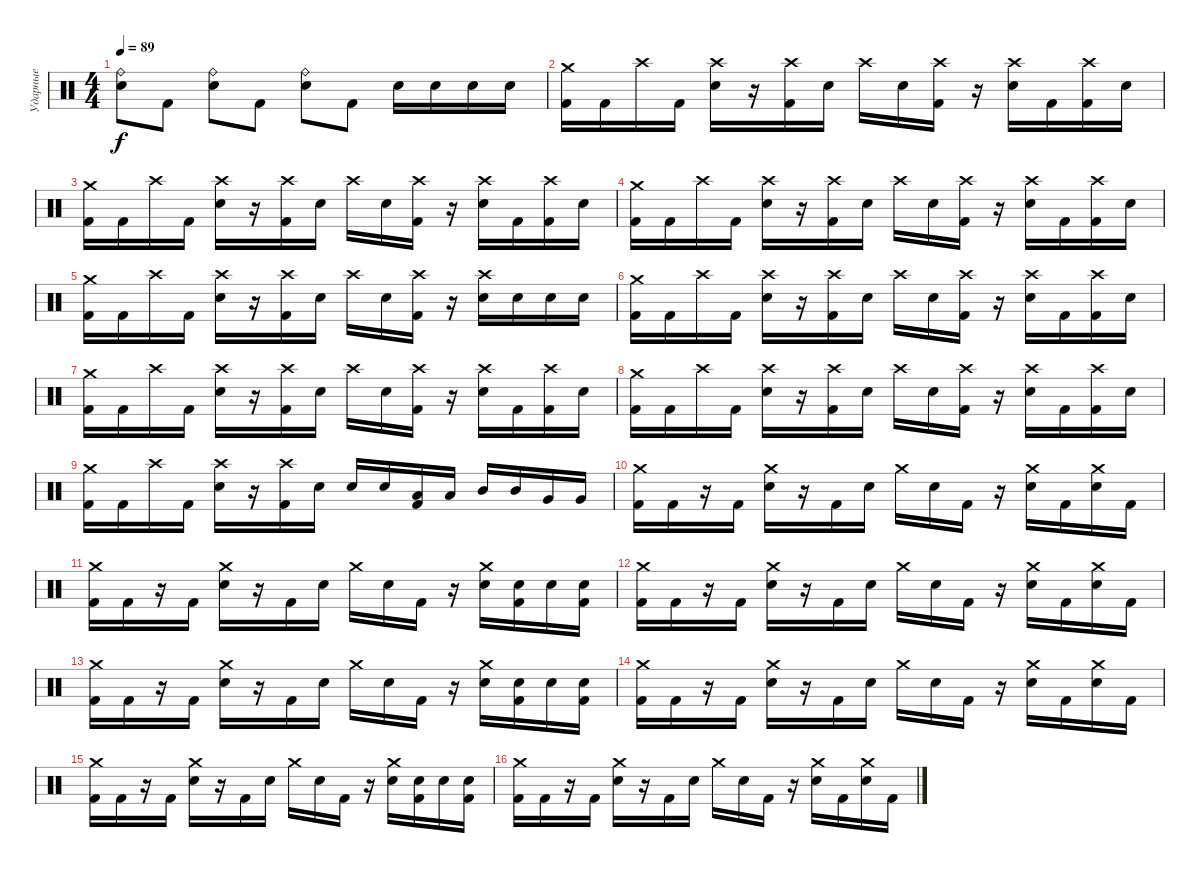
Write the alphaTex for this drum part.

\track ("Ударные" "Ударные") {instrument percussion}
\staff {score}
\articulation defaults
\ts (4 4)
\tempo 89
\clef neutral
\ks c
("Ride (bell)" "Electric Snare (hit)").8{dy f} "Kick (hit) 2".8 ("Ride (bell)" "Electric Snare (hit)").8 "Kick (hit) 2".8 ("Ride (bell)" "Electric Snare (hit)").8 "Kick (hit) 2".8 "Electric Snare (hit)".16 "Electric Snare (hit)".16 "Electric Snare (hit)".16 "Electric Snare (hit)".16 |
("Crash medium (hit)" "Kick (hit) 2").16 "Kick (hit) 2".16 "Crash high (hit)".16 "Kick (hit) 2".16 ("Crash high (hit)" "Electric Snare (hit)").16 r.16 ("Crash high (hit)" "Kick (hit) 2").16 "Electric Snare (hit)".16 "Crash high (hit)".16 "Electric Snare (hit)".16 ("Crash high (hit)" "Kick (hit) 2").16 r.16 ("Crash high (hit)" "Electric Snare (hit)").16 "Kick (hit) 2".16 ("Crash high (hit)" "Kick (hit) 2").16 "Electric Snare (hit)".16 |
("Crash medium (hit)" "Kick (hit) 2").16 "Kick (hit) 2".16 "Crash high (hit)".16 "Kick (hit) 2".16 ("Crash high (hit)" "Electric Snare (hit)").16 r.16 ("Crash high (hit)" "Kick (hit) 2").16 "Electric Snare (hit)".16 "Crash high (hit)".16 "Electric Snare (hit)".16 ("Crash high (hit)" "Kick (hit) 2").16 r.16 ("Crash high (hit)" "Electric Snare (hit)").16 "Kick (hit) 2".16 ("Crash high (hit)" "Kick (hit) 2").16 "Electric Snare (hit)".16 |
("Crash medium (hit)" "Kick (hit) 2").16 "Kick (hit) 2".16 "Crash high (hit)".16 "Kick (hit) 2".16 ("Crash high (hit)" "Electric Snare (hit)").16 r.16 ("Crash high (hit)" "Kick (hit) 2").16 "Electric Snare (hit)".16 "Crash high (hit)".16 "Electric Snare (hit)".16 ("Crash high (hit)" "Kick (hit) 2").16 r.16 ("Crash high (hit)" "Electric Snare (hit)").16 "Kick (hit) 2".16 ("Crash high (hit)" "Kick (hit) 2").16 "Electric Snare (hit)".16 |
("Crash medium (hit)" "Kick (hit) 2").16 "Kick (hit) 2".16 "Crash high (hit)".16 "Kick (hit) 2".16 ("Crash high (hit)" "Electric Snare (hit)").16 r.16 ("Crash high (hit)" "Kick (hit) 2").16 "Electric Snare (hit)".16 "Crash high (hit)".16 "Electric Snare (hit)".16 ("Crash high (hit)" "Kick (hit) 2").16 r.16 ("Crash high (hit)" "Electric Snare (hit)").16 "Electric Snare (hit)".16 "Electric Snare (hit)".16 "Electric Snare (hit)".16 |
("Crash medium (hit)" "Kick (hit) 2").16 "Kick (hit) 2".16 "Crash high (hit)".16 "Kick (hit) 2".16 ("Crash high (hit)" "Electric Snare (hit)").16 r.16 ("Crash high (hit)" "Kick (hit) 2").16 "Electric Snare (hit)".16 "Crash high (hit)".16 "Electric Snare (hit)".16 ("Crash high (hit)" "Kick (hit) 2").16 r.16 ("Crash high (hit)" "Electric Snare (hit)").16 "Kick (hit) 2".16 ("Crash high (hit)" "Kick (hit) 2").16 "Electric Snare (hit)".16 |
("Crash medium (hit)" "Kick (hit) 2").16 "Kick (hit) 2".16 "Crash high (hit)".16 "Kick (hit) 2".16 ("Crash high (hit)" "Electric Snare (hit)").16 r.16 ("Crash high (hit)" "Kick (hit) 2").16 "Electric Snare (hit)".16 "Crash high (hit)".16 "Electric Snare (hit)".16 ("Crash high (hit)" "Kick (hit) 2").16 r.16 ("Crash high (hit)" "Electric Snare (hit)").16 "Kick (hit) 2".16 ("Crash high (hit)" "Kick (hit) 2").16 "Electric Snare (hit)".16 |
("Crash medium (hit)" "Kick (hit) 2").16 "Kick (hit) 2".16 "Crash high (hit)".16 "Kick (hit) 2".16 ("Crash high (hit)" "Electric Snare (hit)").16 r.16 ("Crash high (hit)" "Kick (hit) 2").16 "Electric Snare (hit)".16 "Crash high (hit)".16 "Electric Snare (hit)".16 ("Crash high (hit)" "Kick (hit) 2").16 r.16 ("Crash high (hit)" "Electric Snare (hit)").16 "Kick (hit) 2".16 ("Crash high (hit)" "Kick (hit) 2").16 "Electric Snare (hit)".16 |
("Crash medium (hit)" "Kick (hit) 2").16 "Kick (hit) 2".16 "Crash high (hit)".16 "Kick (hit) 2".16 ("Crash high (hit)" "Electric Snare (hit)").16 r.16 ("Crash high (hit)" "Kick (hit) 2").16 "Electric Snare (hit)".16 "Electric Snare (hit)".16 "Electric Snare (hit)".16 ("Low Tom (hit)" "Kick (hit) 2").16 "Low Tom (hit)".16 "Mid Tom (hit)".16 "Mid Tom (hit)".16 "Very Low Tom (hit)".16 "Very Low Tom (hit)".16 |
("Crash medium (hit)" "Kick (hit) 2").16 "Kick (hit) 2".16 r.16 "Kick (hit) 2".16 ("Crash medium (hit)" "Electric Snare (hit)").16 r.16 "Kick (hit) 2".16 "Electric Snare (hit)".16 "Crash medium (hit)".16 "Electric Snare (hit)".16 "Kick (hit) 2".16 r.16 ("Crash medium (hit)" "Electric Snare (hit)").16 "Kick (hit) 2".16 ("Crash medium (hit)" "Electric Snare (hit)").16 "Kick (hit) 2".16 |
("Crash medium (hit)" "Kick (hit) 2").16 "Kick (hit) 2".16 r.16 "Kick (hit) 2".16 ("Crash medium (hit)" "Electric Snare (hit)").16 r.16 "Kick (hit) 2".16 "Electric Snare (hit)".16 "Crash medium (hit)".16 "Electric Snare (hit)".16 "Kick (hit) 2".16 r.16 ("Crash medium (hit)" "Electric Snare (hit)").16 ("Electric Snare (hit)" "Kick (hit) 2").16 "Electric Snare (hit)".16 ("Electric Snare (hit)" "Kick (hit) 2").16 |
("Crash medium (hit)" "Kick (hit) 2").16 "Kick (hit) 2".16 r.16 "Kick (hit) 2".16 ("Crash medium (hit)" "Electric Snare (hit)").16 r.16 "Kick (hit) 2".16 "Electric Snare (hit)".16 "Crash medium (hit)".16 "Electric Snare (hit)".16 "Kick (hit) 2".16 r.16 ("Crash medium (hit)" "Electric Snare (hit)").16 "Kick (hit) 2".16 ("Crash medium (hit)" "Electric Snare (hit)").16 "Kick (hit) 2".16 |
("Crash medium (hit)" "Kick (hit) 2").16 "Kick (hit) 2".16 r.16 "Kick (hit) 2".16 ("Crash medium (hit)" "Electric Snare (hit)").16 r.16 "Kick (hit) 2".16 "Electric Snare (hit)".16 "Crash medium (hit)".16 "Electric Snare (hit)".16 "Kick (hit) 2".16 r.16 ("Crash medium (hit)" "Electric Snare (hit)").16 ("Electric Snare (hit)" "Kick (hit) 2").16 "Electric Snare (hit)".16 ("Electric Snare (hit)" "Kick (hit) 2").16 |
("Crash medium (hit)" "Kick (hit) 2").16 "Kick (hit) 2".16 r.16 "Kick (hit) 2".16 ("Crash medium (hit)" "Electric Snare (hit)").16 r.16 "Kick (hit) 2".16 "Electric Snare (hit)".16 "Crash medium (hit)".16 "Electric Snare (hit)".16 "Kick (hit) 2".16 r.16 ("Crash medium (hit)" "Electric Snare (hit)").16 "Kick (hit) 2".16 ("Crash medium (hit)" "Electric Snare (hit)").16 "Kick (hit) 2".16 |
("Crash medium (hit)" "Kick (hit) 2").16 "Kick (hit) 2".16 r.16 "Kick (hit) 2".16 ("Crash medium (hit)" "Electric Snare (hit)").16 r.16 "Kick (hit) 2".16 "Electric Snare (hit)".16 "Crash medium (hit)".16 "Electric Snare (hit)".16 "Kick (hit) 2".16 r.16 ("Crash medium (hit)" "Electric Snare (hit)").16 ("Electric Snare (hit)" "Kick (hit) 2").16 "Electric Snare (hit)".16 ("Electric Snare (hit)" "Kick (hit) 2").16 |
("Crash medium (hit)" "Kick (hit) 2").16 "Kick (hit) 2".16 r.16 "Kick (hit) 2".16 ("Crash medium (hit)" "Electric Snare (hit)").16 r.16 "Kick (hit) 2".16 "Electric Snare (hit)".16 "Crash medium (hit)".16 "Electric Snare (hit)".16 "Kick (hit) 2".16 r.16 ("Crash medium (hit)" "Electric Snare (hit)").16 "Kick (hit) 2".16 ("Crash medium (hit)" "Electric Snare (hit)").16 "Kick (hit) 2".16
